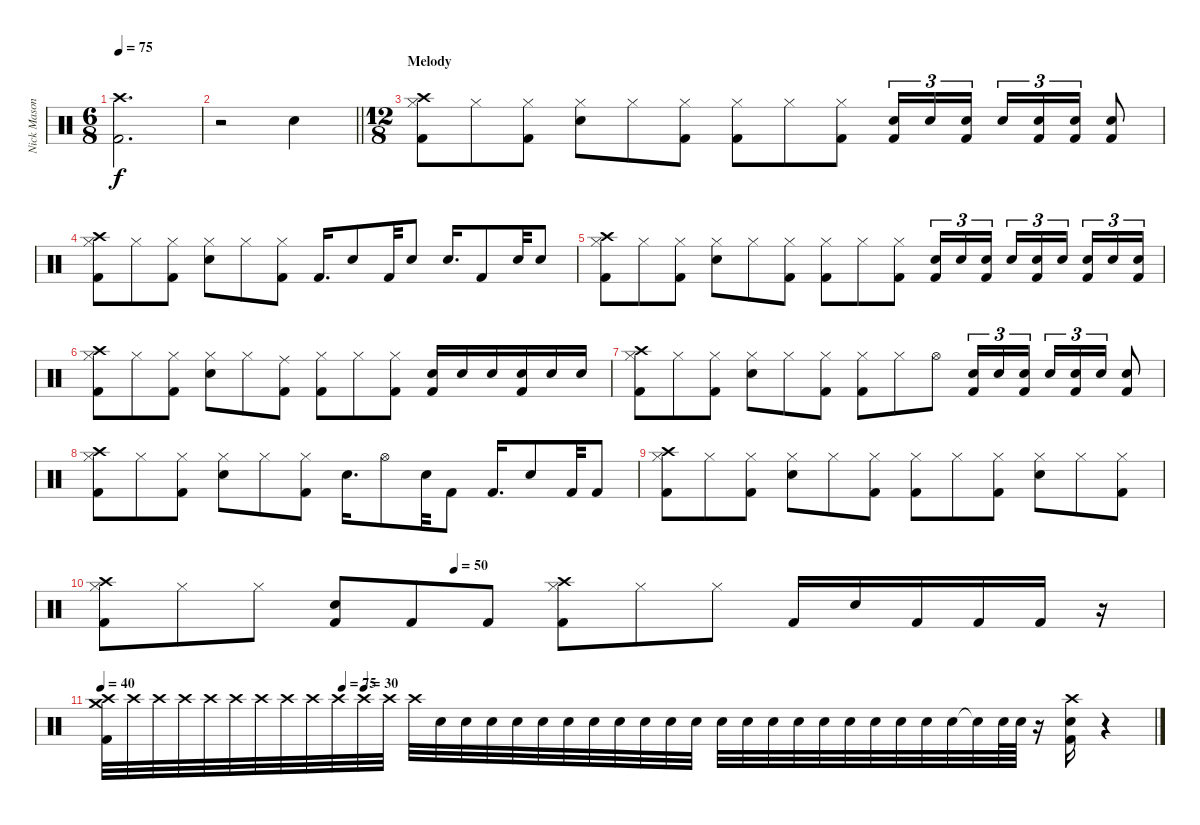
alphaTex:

\track ("Nick Mason (Drums)" "Nick Mason") {instrument percussion}
\staff {score}
\articulation defaults
\ts (6 8)
\tempo 75
\clef neutral
\ks c
("Crash high (hit)" "Kick (hit) 2").2{d dy f} |
\barLineRight lightlight
r.2 "Snare (hit) 2".4 |
\ts (12 8)
\section ("" "Melody")
("Crash high (hit)" "Hi-Hat (closed)" "Kick (hit) 2").8 "Hi-Hat (closed)".8 ("Hi-Hat (closed)" "Kick (hit) 2").8 ("Hi-Hat (closed)" "Snare (hit) 2").8 "Hi-Hat (closed)".8 ("Hi-Hat (closed)" "Kick (hit) 2").8 ("Hi-Hat (closed)" "Kick (hit) 2").8 "Hi-Hat (closed)".8 ("Hi-Hat (closed)" "Kick (hit) 2").8 ("Snare (hit) 2" "Kick (hit) 2").16{tu (3 2)} "Snare (hit) 2".16{tu (3 2)} ("Snare (hit) 2" "Kick (hit) 2").16{tu (3 2) beam splitsecondary} "Snare (hit) 2".16{tu (3 2)} ("Snare (hit) 2" "Kick (hit) 2").16{tu (3 2)} ("Snare (hit) 2" "Kick (hit) 2").16{tu (3 2)} ("Snare (hit) 2" "Kick (hit) 2").8 |
("Crash high (hit)" "Hi-Hat (closed)" "Kick (hit) 2").8 "Hi-Hat (closed)".8 ("Hi-Hat (closed)" "Kick (hit) 2").8 ("Hi-Hat (closed)" "Snare (hit) 2").8 "Hi-Hat (closed)".8 ("Hi-Hat (closed)" "Kick (hit) 2").8 "Kick (hit) 2".16{d} "Snare (hit) 2".8 "Kick (hit) 2".32 "Snare (hit) 2".8 "Snare (hit) 2".16{d} "Kick (hit) 2".8 "Snare (hit) 2".32 "Snare (hit) 2".8 |
("Crash high (hit)" "Hi-Hat (closed)" "Kick (hit) 2").8 "Hi-Hat (closed)".8 ("Hi-Hat (closed)" "Kick (hit) 2").8 ("Hi-Hat (closed)" "Snare (hit) 2").8 "Hi-Hat (closed)".8 ("Hi-Hat (closed)" "Kick (hit) 2").8 ("Hi-Hat (closed)" "Kick (hit) 2").8 "Hi-Hat (closed)".8 ("Hi-Hat (closed)" "Kick (hit) 2").8 ("Snare (hit) 2" "Kick (hit) 2").16{tu (3 2)} "Snare (hit) 2".16{tu (3 2)} ("Snare (hit) 2" "Kick (hit) 2").16{tu (3 2) beam splitsecondary} "Snare (hit) 2".16{tu (3 2)} ("Snare (hit) 2" "Kick (hit) 2").16{tu (3 2)} "Snare (hit) 2".16{tu (3 2) beam splitsecondary} ("Snare (hit) 2" "Kick (hit) 2").16{tu (3 2)} "Snare (hit) 2".16{tu (3 2)} ("Snare (hit) 2" "Kick (hit) 2").16{tu (3 2)} |
("Crash high (hit)" "Hi-Hat (closed)" "Kick (hit) 2").8 "Hi-Hat (closed)".8 ("Hi-Hat (closed)" "Kick (hit) 2").8 ("Hi-Hat (closed)" "Snare (hit) 2").8 "Hi-Hat (closed)".8 ("Ride (middle)" "Kick (hit) 2").8 ("Hi-Hat (closed)" "Kick (hit) 2").8 "Hi-Hat (closed)".8 ("Hi-Hat (closed)" "Kick (hit) 2").8 ("Snare (hit) 2" "Kick (hit) 2").16 "Snare (hit) 2".16 "Snare (hit) 2".16 ("Snare (hit) 2" "Kick (hit) 2").16 "Snare (hit) 2".16 "Snare (hit) 2".16 |
("Crash high (hit)" "Hi-Hat (closed)" "Kick (hit) 2").8 "Hi-Hat (closed)".8 ("Hi-Hat (closed)" "Kick (hit) 2").8 ("Hi-Hat (closed)" "Snare (hit) 2").8 "Hi-Hat (closed)".8 ("Hi-Hat (closed)" "Kick (hit) 2").8 ("Hi-Hat (closed)" "Kick (hit) 2").8 "Hi-Hat (closed)".8 "Hi-Hat (open)".8 ("Snare (hit) 2" "Kick (hit) 2").16{tu (3 2)} "Snare (hit) 2".16{tu (3 2)} ("Snare (hit) 2" "Kick (hit) 2").16{tu (3 2) beam splitsecondary} "Snare (hit) 2".16{tu (3 2)} ("Snare (hit) 2" "Kick (hit) 2").16{tu (3 2)} "Snare (hit) 2".16{tu (3 2)} ("Snare (hit) 2" "Kick (hit) 2").8 |
("Crash high (hit)" "Hi-Hat (closed)" "Kick (hit) 2").8 "Hi-Hat (closed)".8 ("Hi-Hat (closed)" "Kick (hit) 2").8 ("Hi-Hat (closed)" "Snare (hit) 2").8 "Hi-Hat (closed)".8 ("Hi-Hat (closed)" "Kick (hit) 2").8 "Snare (hit) 2".16{d} "Hi-Hat (open)".8 "Snare (hit) 2".32 "Kick (hit) 2".8 "Kick (hit) 2".16{d} "Snare (hit) 2".8 "Kick (hit) 2".32 "Kick (hit) 2".8 |
("Crash high (hit)" "Hi-Hat (closed)" "Kick (hit) 2").8 "Hi-Hat (closed)".8 ("Hi-Hat (closed)" "Kick (hit) 2").8 ("Hi-Hat (closed)" "Snare (hit) 2").8 "Hi-Hat (closed)".8 ("Hi-Hat (closed)" "Kick (hit) 2").8 ("Hi-Hat (closed)" "Kick (hit) 2").8 "Hi-Hat (closed)".8 ("Hi-Hat (closed)" "Kick (hit) 2").8 ("Hi-Hat (closed)" "Snare (hit) 2").8 "Hi-Hat (closed)".8 ("Hi-Hat (closed)" "Kick (hit) 2").8 |
\tempo (50 0.3333333333333333)
("Crash high (hit)" "Hi-Hat (closed)" "Kick (hit) 2").8 "Hi-Hat (closed)".8 "Hi-Hat (closed)".8 ("Snare (hit) 2" "Kick (hit) 2").8 "Kick (hit) 2".8 "Kick (hit) 2".8 ("Crash high (hit)" "Hi-Hat (closed)" "Kick (hit) 2").8 "Hi-Hat (closed)".8 "Hi-Hat (closed)".8 "Kick (hit) 2".16 "Snare (hit) 2".16 "Kick (hit) 2".16 "Kick (hit) 2".16 "Kick (hit) 2".16 r.16 |
\tempo 40
\tempo (75 0.22916666666666666)
\tempo (30 0.25)
("Crash high (hit)" "Kick (hit) 2" "Crash medium (hit)").32 "Crash high (hit)".32 "Crash high (hit)".32 "Crash high (hit)".32 "Crash high (hit)".32 "Crash high (hit)".32 "Crash high (hit)".32 "Crash high (hit)".32 "Crash high (hit)".32 "Crash high (hit)".32 "Crash high (hit)".32 "Crash high (hit)".32 "Crash high (hit)".32 "Snare (hit) 2".32 "Snare (hit) 2".32 "Snare (hit) 2".32 "Snare (hit) 2".32 "Snare (hit) 2".32 "Snare (hit) 2".32 "Snare (hit) 2".32 "Snare (hit) 2".32 "Snare (hit) 2".32 "Snare (hit) 2".32 "Snare (hit) 2".32 "Snare (hit) 2".32 "Snare (hit) 2".32 "Snare (hit) 2".32 "Snare (hit) 2".32 "Snare (hit) 2".32 "Snare (hit) 2".32 "Snare (hit) 2".32 "Snare (hit) 2".32 "Snare (hit) 2".32 "Snare (hit) 2".32 "Snare (hit) 2"{t}.32 "Snare (hit) 2".64 "Snare (hit) 2".64 r.16 ("Crash high (hit)" "Snare (hit) 2" "Kick (hit) 2").16 r.4
